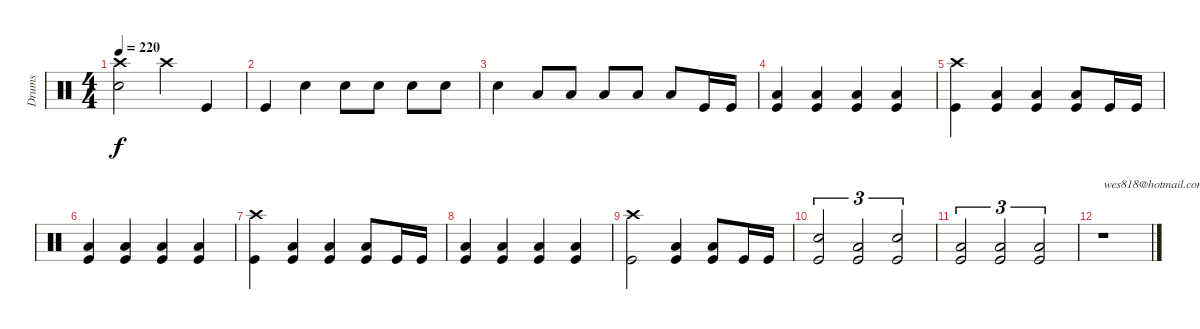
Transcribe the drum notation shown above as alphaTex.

\track ("Drums" "Drums") {instrument percussion}
\staff {score}
\articulation defaults
\ts (4 4)
\tempo 220
\clef neutral
\ks c
("Crash high (hit)" "Snare (hit) 2").2{dy f} "Crash high (hit)".4 "Kick (hit)".4 |
"Kick (hit)".4 "Snare (hit) 2".4 "Snare (hit) 2".8 "Snare (hit) 2".8 "Snare (hit) 2".8 "Snare (hit) 2".8 |
"Snare (hit) 2".4 "Low Floor Tom (hit)".8 "Low Floor Tom (hit)".8 "Low Floor Tom (hit)".8 "Low Floor Tom (hit)".8 "Low Floor Tom (hit)".8 "Kick (hit)".16 "Kick (hit)".16 |
("Low Floor Tom (hit)" "Kick (hit)").4 ("Low Floor Tom (hit)" "Kick (hit)").4 ("Low Floor Tom (hit)" "Kick (hit)").4 ("Low Floor Tom (hit)" "Kick (hit)").4 |
("Crash high (hit)" "Kick (hit)").4 ("Low Floor Tom (hit)" "Kick (hit)").4 ("Low Floor Tom (hit)" "Kick (hit)").4 ("Low Floor Tom (hit)" "Kick (hit)").8 "Kick (hit)".16 "Kick (hit)".16 |
("Low Floor Tom (hit)" "Kick (hit)").4 ("Low Floor Tom (hit)" "Kick (hit)").4 ("Low Floor Tom (hit)" "Kick (hit)").4 ("Low Floor Tom (hit)" "Kick (hit)").4 |
("Crash high (hit)" "Kick (hit)").4 ("Low Floor Tom (hit)" "Kick (hit)").4 ("Low Floor Tom (hit)" "Kick (hit)").4 ("Low Floor Tom (hit)" "Kick (hit)").8 "Kick (hit)".16 "Kick (hit)".16 |
("Low Floor Tom (hit)" "Kick (hit)").4 ("Low Floor Tom (hit)" "Kick (hit)").4 ("Low Floor Tom (hit)" "Kick (hit)").4 ("Low Floor Tom (hit)" "Kick (hit)").4 |
("Crash high (hit)" "Kick (hit)").2 ("Low Floor Tom (hit)" "Kick (hit)").4 ("Low Floor Tom (hit)" "Kick (hit)").8 "Kick (hit)".16 "Kick (hit)".16 |
("Snare (hit) 2" "Kick (hit)").2{tu (3 2)} ("Low Floor Tom (hit)" "Kick (hit)").2{tu (3 2)} ("Snare (hit) 2" "Kick (hit)").2{tu (3 2)} |
("Low Floor Tom (hit)" "Kick (hit)").2{tu (3 2)} ("Low Floor Tom (hit)" "Kick (hit)").2{tu (3 2)} ("Low Floor Tom (hit)" "Kick (hit)").2{tu (3 2)} |
r.1{txt "wes818@hotmail.com"}
